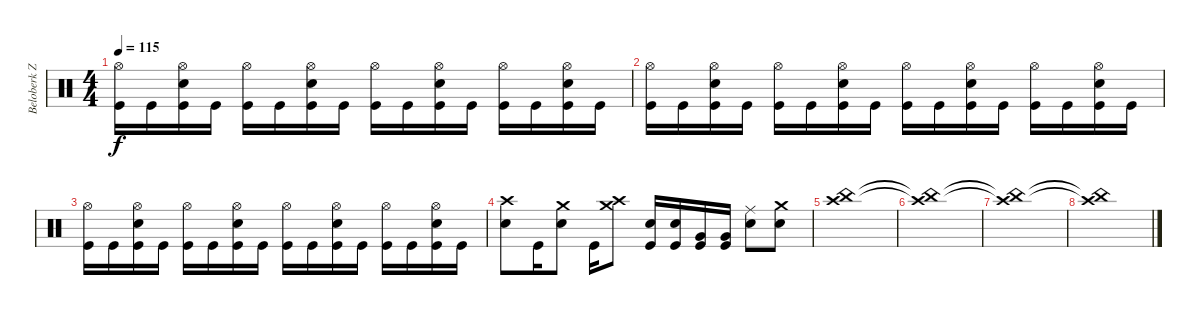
\track ("Beloberk Zsolt /dob/" "Beloberk Z") {instrument percussion}
\staff {score}
\articulation defaults
\ts (4 4)
\tempo 115
\clef neutral
\ks c
("Hi-Hat (open)" "Kick (hit)").16{dy f} "Kick (hit)".16 ("Hi-Hat (open)" "Electric Snare (hit)" "Kick (hit)").16 "Kick (hit)".16 ("Hi-Hat (open)" "Kick (hit)").16 "Kick (hit)".16 ("Hi-Hat (open)" "Electric Snare (hit)" "Kick (hit)").16 "Kick (hit)".16 ("Hi-Hat (open)" "Kick (hit)").16 "Kick (hit)".16 ("Hi-Hat (open)" "Electric Snare (hit)" "Kick (hit)").16 "Kick (hit)".16 ("Hi-Hat (open)" "Kick (hit)").16 "Kick (hit)".16 ("Hi-Hat (open)" "Electric Snare (hit)" "Kick (hit)").16 "Kick (hit)".16 |
("Hi-Hat (open)" "Kick (hit)").16 "Kick (hit)".16 ("Hi-Hat (open)" "Electric Snare (hit)" "Kick (hit)").16 "Kick (hit)".16 ("Hi-Hat (open)" "Kick (hit)").16 "Kick (hit)".16 ("Hi-Hat (open)" "Electric Snare (hit)" "Kick (hit)").16 "Kick (hit)".16 ("Hi-Hat (open)" "Kick (hit)").16 "Kick (hit)".16 ("Hi-Hat (open)" "Electric Snare (hit)" "Kick (hit)").16 "Kick (hit)".16 ("Hi-Hat (open)" "Kick (hit)").16 "Kick (hit)".16 ("Hi-Hat (open)" "Electric Snare (hit)" "Kick (hit)").16 "Kick (hit)".16 |
("Hi-Hat (open)" "Kick (hit)").16 "Kick (hit)".16 ("Hi-Hat (open)" "Electric Snare (hit)" "Kick (hit)").16 "Kick (hit)".16 ("Hi-Hat (open)" "Kick (hit)").16 "Kick (hit)".16 ("Hi-Hat (open)" "Electric Snare (hit)" "Kick (hit)").16 "Kick (hit)".16 ("Hi-Hat (open)" "Kick (hit)").16 "Kick (hit)".16 ("Hi-Hat (open)" "Electric Snare (hit)" "Kick (hit)").16 "Kick (hit)".16 ("Hi-Hat (open)" "Kick (hit)").16 "Kick (hit)".16 ("Hi-Hat (open)" "Electric Snare (hit)" "Kick (hit)").16 "Kick (hit)".16 |
("Crash high (hit)" "Snare (hit) 2").8 "Kick (hit)".16 ("Crash medium (hit)" "Snare (hit) 2").8 "Kick (hit)".16 ("Crash medium (hit)" "Crash high (hit)").8 ("Snare (hit) 2" "Kick (hit)").16 ("Snare (hit) 2" "Kick (hit)").16 ("Very Low Tom (hit)" "Kick (hit)").16 ("Very Low Tom (hit)" "Kick (hit)").16 ("Ride (middle)" "Snare (hit) 2").8 ("Crash medium (hit)" "Snare (hit) 2").8 |
("China (hit)" "Crash high (hit)").1 |
("China (hit)"{t} "Crash high (hit)"{t}).1 |
("China (hit)"{t} "Crash high (hit)"{t}).1 |
("China (hit)"{t} "Crash high (hit)"{t}).1
